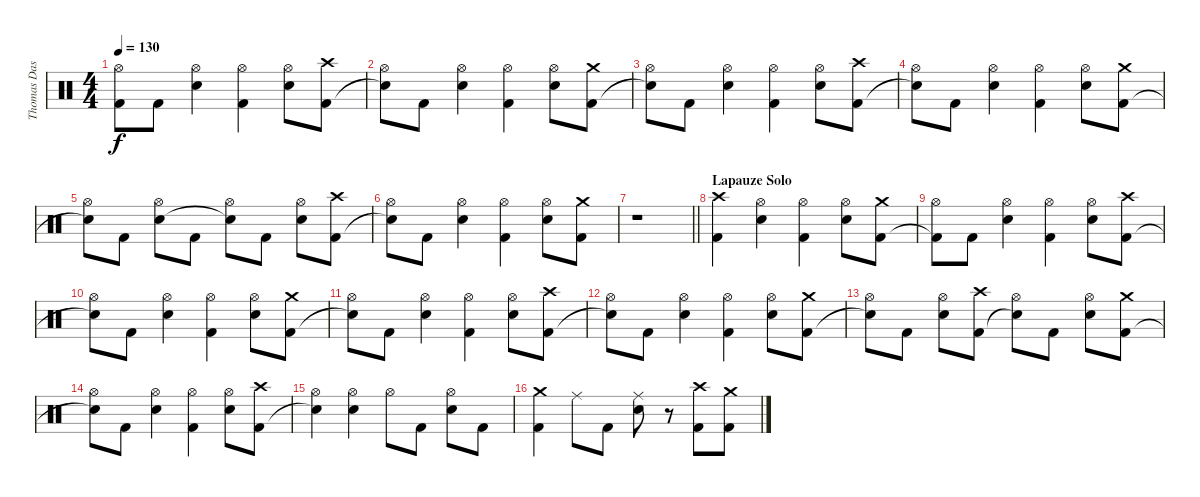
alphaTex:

\track ("Thomas Das Neves (Drums)" "Thomas Das") {instrument percussion}
\staff {score}
\articulation defaults
\ts (4 4)
\tempo 130
\clef neutral
\ks c
("Hi-Hat (open)" "Kick (hit) 2"{t}).8{dy f} "Kick (hit) 2".8 ("Hi-Hat (open)" "Snare (hit) 2").4 ("Hi-Hat (open)" "Kick (hit) 2").4 ("Hi-Hat (open)" "Snare (hit) 2").8 ("Crash high (hit)" "Kick (hit) 2").8 |
("Hi-Hat (open)" "Snare (hit)"{t}).8 "Kick (hit) 2".8 ("Hi-Hat (open)" "Snare (hit) 2").4 ("Hi-Hat (open)" "Kick (hit) 2").4 ("Hi-Hat (open)" "Snare (hit) 2").8 ("Crash medium (hit)" "Kick (hit) 2").8 |
("Hi-Hat (open)" "Snare (hit)"{t}).8 "Kick (hit) 2".8 ("Hi-Hat (open)" "Snare (hit) 2").4 ("Hi-Hat (open)" "Kick (hit) 2").4 ("Hi-Hat (open)" "Snare (hit) 2").8 ("Crash high (hit)" "Kick (hit) 2").8 |
("Hi-Hat (open)" "Snare (hit)"{t}).8 "Kick (hit) 2".8 ("Hi-Hat (open)" "Snare (hit) 2").4 ("Hi-Hat (open)" "Kick (hit) 2").4 ("Hi-Hat (open)" "Snare (hit) 2").8 ("Crash medium (hit)" "Kick (hit) 2").8 |
("Hi-Hat (open)" "Snare (hit)"{t}).8 "Kick (hit) 2".8 ("Hi-Hat (open)" "Snare (hit) 2").8 "Kick (hit) 2".8 ("Hi-Hat (open)" "Snare (hit)"{t}).8 "Kick (hit) 2".8 ("Hi-Hat (open)" "Snare (hit) 2").8 ("Crash high (hit)" "Kick (hit) 2").8 |
("Hi-Hat (open)" "Snare (hit)"{t}).8 "Kick (hit) 2".8 ("Hi-Hat (open)" "Snare (hit) 2").4 ("Hi-Hat (open)" "Kick (hit) 2").4 ("Hi-Hat (open)" "Snare (hit) 2").8 ("Crash medium (hit)" "Kick (hit) 2").8 |
\barLineRight lightlight
r.1 |
\section ("" "Lapauze Solo")
("Crash high (hit)" "Kick (hit) 2").4 ("Hi-Hat (open)" "Snare (hit) 2").4 ("Hi-Hat (open)" "Kick (hit) 2").4 ("Hi-Hat (open)" "Snare (hit) 2").8 ("Crash medium (hit)" "Kick (hit) 2").8 |
("Hi-Hat (open)" "Kick (hit) 2"{t}).8 "Kick (hit) 2".8 ("Hi-Hat (open)" "Snare (hit) 2").4 ("Hi-Hat (open)" "Kick (hit) 2").4 ("Hi-Hat (open)" "Snare (hit) 2").8 ("Crash high (hit)" "Kick (hit) 2").8 |
("Hi-Hat (open)" "Snare (hit)"{t}).8 "Kick (hit) 2".8 ("Hi-Hat (open)" "Snare (hit) 2").4 ("Hi-Hat (open)" "Kick (hit) 2").4 ("Hi-Hat (open)" "Snare (hit) 2").8 ("Crash medium (hit)" "Kick (hit) 2").8 |
("Hi-Hat (open)" "Snare (hit)"{t}).8 "Kick (hit) 2".8 ("Hi-Hat (open)" "Snare (hit) 2").4 ("Hi-Hat (open)" "Kick (hit) 2").4 ("Hi-Hat (open)" "Snare (hit) 2").8 ("Crash high (hit)" "Kick (hit) 2").8 |
("Hi-Hat (open)" "Snare (hit)"{t}).8 "Kick (hit) 2".8 ("Hi-Hat (open)" "Snare (hit) 2").4 ("Hi-Hat (open)" "Kick (hit) 2").4 ("Hi-Hat (open)" "Snare (hit) 2").8 ("Crash medium (hit)" "Kick (hit) 2").8 |
("Hi-Hat (open)" "Snare (hit)"{t}).8 "Kick (hit) 2".8 ("Hi-Hat (open)" "Snare (hit) 2").8 ("Crash high (hit)" "Kick (hit) 2").8 ("Hi-Hat (open)" "Snare (hit)"{t}).8 "Kick (hit) 2".8 ("Hi-Hat (open)" "Snare (hit) 2").8 ("Crash medium (hit)" "Kick (hit) 2").8 |
("Hi-Hat (open)" "Snare (hit)"{t}).8 "Kick (hit) 2".8 ("Hi-Hat (open)" "Snare (hit) 2").4 ("Hi-Hat (open)" "Kick (hit) 2").4 ("Hi-Hat (open)" "Snare (hit) 2").8 ("Crash high (hit)" "Kick (hit) 2").8 |
("Hi-Hat (open)" "Snare (hit)"{t}).4 ("Hi-Hat (open)" "Snare (hit) 2").4 "Hi-Hat (open)".8 "Kick (hit) 2".8 ("Hi-Hat (open)" "Snare (hit) 2").8 "Kick (hit) 2".8 |
("Crash medium (hit)" "Kick (hit) 2").4 "Ride (middle)".8 "Kick (hit) 2".8 ("Ride (middle)" "Snare (hit) 2").8 r.8 ("Crash high (hit)" "Kick (hit) 2").8 ("Crash medium (hit)" "Kick (hit) 2").8
